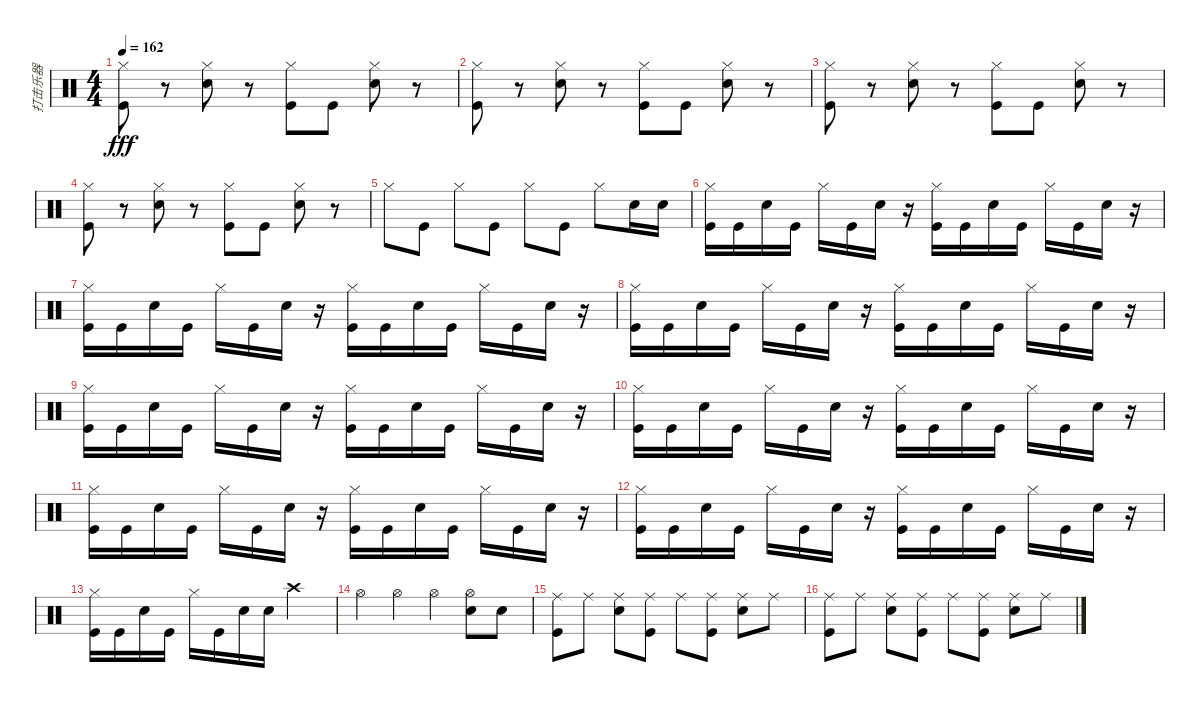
\track ("打击乐器" "打击乐器") {instrument percussion}
\staff {score}
\articulation defaults
\ts (4 4)
\tempo 162
\clef neutral
\ks c
("Hi-Hat (closed)" "Kick (hit)").8{dy fff} r.8 ("Hi-Hat (closed)" "Snare (hit) 2").8 r.8 ("Hi-Hat (closed)" "Kick (hit)").8 "Kick (hit)".8 ("Hi-Hat (closed)" "Snare (hit) 2").8 r.8 |
("Hi-Hat (closed)" "Kick (hit)").8 r.8 ("Hi-Hat (closed)" "Snare (hit) 2").8 r.8 ("Hi-Hat (closed)" "Kick (hit)").8 "Kick (hit)".8 ("Hi-Hat (closed)" "Snare (hit) 2").8 r.8 |
("Hi-Hat (closed)" "Kick (hit)").8 r.8 ("Hi-Hat (closed)" "Snare (hit) 2").8 r.8 ("Hi-Hat (closed)" "Kick (hit)").8 "Kick (hit)".8 ("Hi-Hat (closed)" "Snare (hit) 2").8 r.8 |
("Hi-Hat (closed)" "Kick (hit)").8 r.8 ("Hi-Hat (closed)" "Snare (hit) 2").8 r.8 ("Hi-Hat (closed)" "Kick (hit)").8 "Kick (hit)".8 ("Hi-Hat (closed)" "Snare (hit) 2").8 r.8 |
"Hi-Hat (closed)".8 "Kick (hit)".8 "Hi-Hat (closed)".8 "Kick (hit)".8 "Hi-Hat (closed)".8 "Kick (hit)".8 "Hi-Hat (closed)".8 "Snare (hit) 2".16 "Snare (hit) 2".16 |
("Hi-Hat (closed)" "Kick (hit)").16 "Kick (hit)".16 "Snare (hit) 2".16 "Kick (hit)".16 "Hi-Hat (closed)".16 "Kick (hit)".16 "Snare (hit) 2".16 r.16 ("Hi-Hat (closed)" "Kick (hit)").16 "Kick (hit)".16 "Snare (hit) 2".16 "Kick (hit)".16 "Hi-Hat (closed)".16 "Kick (hit)".16 "Snare (hit) 2".16 r.16 |
("Hi-Hat (closed)" "Kick (hit)").16 "Kick (hit)".16 "Snare (hit) 2".16 "Kick (hit)".16 "Hi-Hat (closed)".16 "Kick (hit)".16 "Snare (hit) 2".16 r.16 ("Hi-Hat (closed)" "Kick (hit)").16 "Kick (hit)".16 "Snare (hit) 2".16 "Kick (hit)".16 "Hi-Hat (closed)".16 "Kick (hit)".16 "Snare (hit) 2".16 r.16 |
("Hi-Hat (closed)" "Kick (hit)").16 "Kick (hit)".16 "Snare (hit) 2".16 "Kick (hit)".16 "Hi-Hat (closed)".16 "Kick (hit)".16 "Snare (hit) 2".16 r.16 ("Hi-Hat (closed)" "Kick (hit)").16 "Kick (hit)".16 "Snare (hit) 2".16 "Kick (hit)".16 "Hi-Hat (closed)".16 "Kick (hit)".16 "Snare (hit) 2".16 r.16 |
("Hi-Hat (closed)" "Kick (hit)").16 "Kick (hit)".16 "Snare (hit) 2".16 "Kick (hit)".16 "Hi-Hat (closed)".16 "Kick (hit)".16 "Snare (hit) 2".16 r.16 ("Hi-Hat (closed)" "Kick (hit)").16 "Kick (hit)".16 "Snare (hit) 2".16 "Kick (hit)".16 "Hi-Hat (closed)".16 "Kick (hit)".16 "Snare (hit) 2".16 r.16 |
("Hi-Hat (closed)" "Kick (hit)").16 "Kick (hit)".16 "Snare (hit) 2".16 "Kick (hit)".16 "Hi-Hat (closed)".16 "Kick (hit)".16 "Snare (hit) 2".16 r.16 ("Hi-Hat (closed)" "Kick (hit)").16 "Kick (hit)".16 "Snare (hit) 2".16 "Kick (hit)".16 "Hi-Hat (closed)".16 "Kick (hit)".16 "Snare (hit) 2".16 r.16 |
("Hi-Hat (closed)" "Kick (hit)").16 "Kick (hit)".16 "Snare (hit) 2".16 "Kick (hit)".16 "Hi-Hat (closed)".16 "Kick (hit)".16 "Snare (hit) 2".16 r.16 ("Hi-Hat (closed)" "Kick (hit)").16 "Kick (hit)".16 "Snare (hit) 2".16 "Kick (hit)".16 "Hi-Hat (closed)".16 "Kick (hit)".16 "Snare (hit) 2".16 r.16 |
("Hi-Hat (closed)" "Kick (hit)").16 "Kick (hit)".16 "Snare (hit) 2".16 "Kick (hit)".16 "Hi-Hat (closed)".16 "Kick (hit)".16 "Snare (hit) 2".16 r.16 ("Hi-Hat (closed)" "Kick (hit)").16 "Kick (hit)".16 "Snare (hit) 2".16 "Kick (hit)".16 "Hi-Hat (closed)".16 "Kick (hit)".16 "Snare (hit) 2".16 r.16 |
("Hi-Hat (closed)" "Kick (hit)").16 "Kick (hit)".16 "Snare (hit) 2".16 "Kick (hit)".16 "Hi-Hat (closed)".16 "Kick (hit)".16 "Snare (hit) 2".16 "Snare (hit) 2".16 "Crash high (hit)".2 |
"Hi-Hat (open)".4 "Hi-Hat (open)".4 "Hi-Hat (open)".4 ("Hi-Hat (open)" "Snare (hit) 2").8 "Snare (hit) 2".8 |
("Ride (middle)" "Kick (hit)").8 "Ride (middle)".8 ("Ride (middle)" "Snare (hit) 2").8 ("Kick (hit)" "Ride (middle)").8 "Ride (middle)".8 ("Kick (hit)" "Ride (middle)").8 ("Ride (middle)" "Snare (hit) 2").8 "Ride (middle)".8 |
("Ride (middle)" "Kick (hit)").8 "Ride (middle)".8 ("Ride (middle)" "Snare (hit) 2").8 ("Kick (hit)" "Ride (middle)").8 "Ride (middle)".8 ("Kick (hit)" "Ride (middle)").8 ("Ride (middle)" "Snare (hit) 2").8 "Ride (middle)".8
